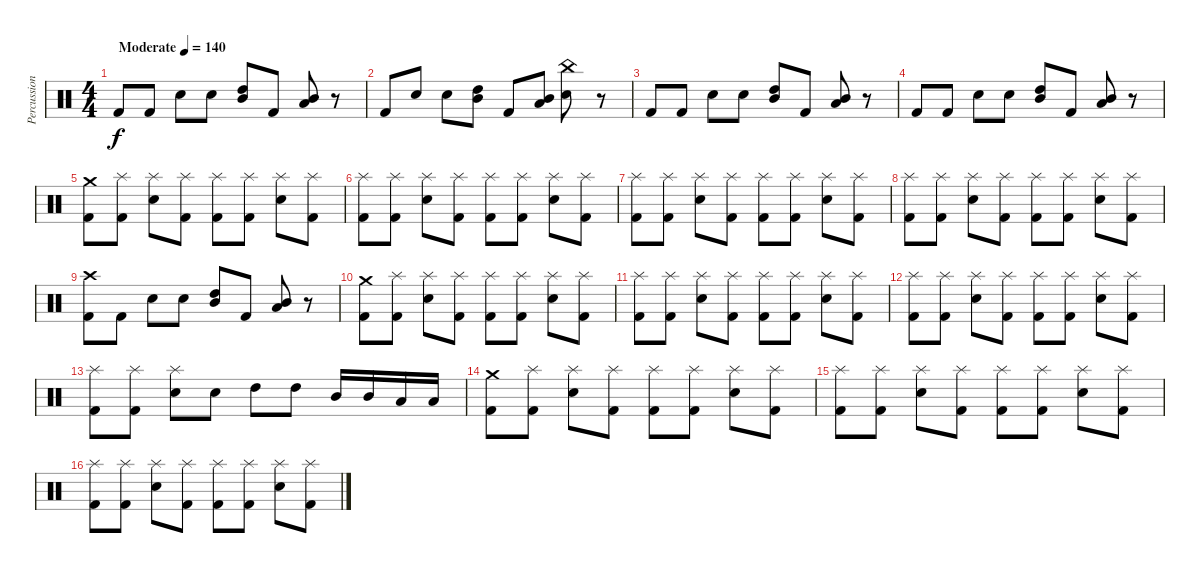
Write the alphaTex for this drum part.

\track ("Percussion" "Percussion") {instrument percussion}
\staff {score}
\articulation defaults
\ts (4 4)
\tempo (140 "Moderate")
\clef neutral
\ks c "Kick (hit) 2".8{dy f} "Kick (hit) 2".8 "Electric Snare (hit)".8 "Electric Snare (hit)".8
("Mid Tom (hit)" "High Tom (hit)").8 "Kick (hit) 2".8 ("Low Tom (hit)" "Mid Tom (hit)").8 r.8 |
"Kick (hit) 2".8 "Electric Snare (hit)".8 "Electric Snare (hit)".8 ("High Tom (hit)" "Mid Tom (hit)").8 "Kick (hit) 2".8 ("Low Tom (hit)" "Mid Tom (hit)").8 ("China (hit)" "Electric Snare (hit)").8 r.8 |
"Kick (hit) 2".8 "Kick (hit) 2".8 "Electric Snare (hit)".8 "Electric Snare (hit)".8 ("Mid Tom (hit)" "High Tom (hit)").8 "Kick (hit) 2".8 ("Low Tom (hit)" "Mid Tom (hit)").8 r.8 |
"Kick (hit) 2".8 "Kick (hit) 2".8 "Electric Snare (hit)".8 "Electric Snare (hit)".8 ("Mid Tom (hit)" "High Tom (hit)").8 "Kick (hit) 2".8 ("Low Tom (hit)" "Mid Tom (hit)").8 r.8 |
("Crash medium (hit)" "Kick (hit) 2").8 ("Splash (hit)" "Kick (hit) 2").8 ("Splash (hit)" "Electric Snare (hit)").8 ("Splash (hit)" "Kick (hit) 2").8 ("Splash (hit)" "Kick (hit) 2").8 ("Splash (hit)" "Kick (hit) 2").8 ("Splash (hit)" "Electric Snare (hit)").8 ("Splash (hit)" "Kick (hit) 2").8 |
("Splash (hit)" "Kick (hit) 2").8 ("Splash (hit)" "Kick (hit) 2").8 ("Splash (hit)" "Electric Snare (hit)").8 ("Splash (hit)" "Kick (hit) 2").8 ("Splash (hit)" "Kick (hit) 2").8 ("Splash (hit)" "Kick (hit) 2").8 ("Splash (hit)" "Electric Snare (hit)").8 ("Splash (hit)" "Kick (hit) 2").8 |
("Splash (hit)" "Kick (hit) 2").8 ("Splash (hit)" "Kick (hit) 2").8 ("Splash (hit)" "Electric Snare (hit)").8 ("Splash (hit)" "Kick (hit) 2").8 ("Splash (hit)" "Kick (hit) 2").8 ("Splash (hit)" "Kick (hit) 2").8 ("Splash (hit)" "Electric Snare (hit)").8 ("Splash (hit)" "Kick (hit) 2").8 |
("Splash (hit)" "Kick (hit) 2").8 ("Splash (hit)" "Kick (hit) 2").8 ("Splash (hit)" "Electric Snare (hit)").8 ("Splash (hit)" "Kick (hit) 2").8 ("Splash (hit)" "Kick (hit) 2").8 ("Splash (hit)" "Kick (hit) 2").8 ("Splash (hit)" "Electric Snare (hit)").8 ("Splash (hit)" "Kick (hit) 2").8 |
("Crash high (hit)" "Kick (hit) 2").8 "Kick (hit) 2".8 "Electric Snare (hit)".8 "Electric Snare (hit)".8 ("Mid Tom (hit)" "High Tom (hit)").8 "Kick (hit) 2".8 ("Low Tom (hit)" "Mid Tom (hit)").8 r.8 |
("Crash medium (hit)" "Kick (hit) 2").8 ("Splash (hit)" "Kick (hit) 2").8 ("Splash (hit)" "Electric Snare (hit)").8 ("Splash (hit)" "Kick (hit) 2").8 ("Splash (hit)" "Kick (hit) 2").8 ("Splash (hit)" "Kick (hit) 2").8 ("Splash (hit)" "Electric Snare (hit)").8 ("Splash (hit)" "Kick (hit) 2").8 |
("Splash (hit)" "Kick (hit) 2").8 ("Splash (hit)" "Kick (hit) 2").8 ("Splash (hit)" "Electric Snare (hit)").8 ("Splash (hit)" "Kick (hit) 2").8 ("Splash (hit)" "Kick (hit) 2").8 ("Splash (hit)" "Kick (hit) 2").8 ("Splash (hit)" "Electric Snare (hit)").8 ("Splash (hit)" "Kick (hit) 2").8 |
("Splash (hit)" "Kick (hit) 2").8 ("Splash (hit)" "Kick (hit) 2").8 ("Splash (hit)" "Electric Snare (hit)").8 ("Splash (hit)" "Kick (hit) 2").8 ("Splash (hit)" "Kick (hit) 2").8 ("Splash (hit)" "Kick (hit) 2").8 ("Splash (hit)" "Electric Snare (hit)").8 ("Splash (hit)" "Kick (hit) 2").8 |
("Splash (hit)" "Kick (hit) 2").8 ("Splash (hit)" "Kick (hit) 2").8 ("Splash (hit)" "Electric Snare (hit)").8 "Electric Snare (hit)".8 "High Tom (hit)".8 "High Tom (hit)".8 "Mid Tom (hit)".16 "Mid Tom (hit)".16 "Low Tom (hit)".16 "Low Tom (hit)".16 |
("Crash medium (hit)" "Kick (hit) 2").8 ("Splash (hit)" "Kick (hit) 2").8 ("Splash (hit)" "Electric Snare (hit)").8 ("Splash (hit)" "Kick (hit) 2").8 ("Splash (hit)" "Kick (hit) 2").8 ("Splash (hit)" "Kick (hit) 2").8 ("Splash (hit)" "Electric Snare (hit)").8 ("Splash (hit)" "Kick (hit) 2").8 |
("Splash (hit)" "Kick (hit) 2").8 ("Splash (hit)" "Kick (hit) 2").8 ("Splash (hit)" "Electric Snare (hit)").8 ("Splash (hit)" "Kick (hit) 2").8 ("Splash (hit)" "Kick (hit) 2").8 ("Splash (hit)" "Kick (hit) 2").8 ("Splash (hit)" "Electric Snare (hit)").8 ("Splash (hit)" "Kick (hit) 2").8 |
("Splash (hit)" "Kick (hit) 2").8 ("Splash (hit)" "Kick (hit) 2").8 ("Splash (hit)" "Electric Snare (hit)").8 ("Splash (hit)" "Kick (hit) 2").8 ("Splash (hit)" "Kick (hit) 2").8 ("Splash (hit)" "Kick (hit) 2").8 ("Splash (hit)" "Electric Snare (hit)").8 ("Splash (hit)" "Kick (hit) 2").8
